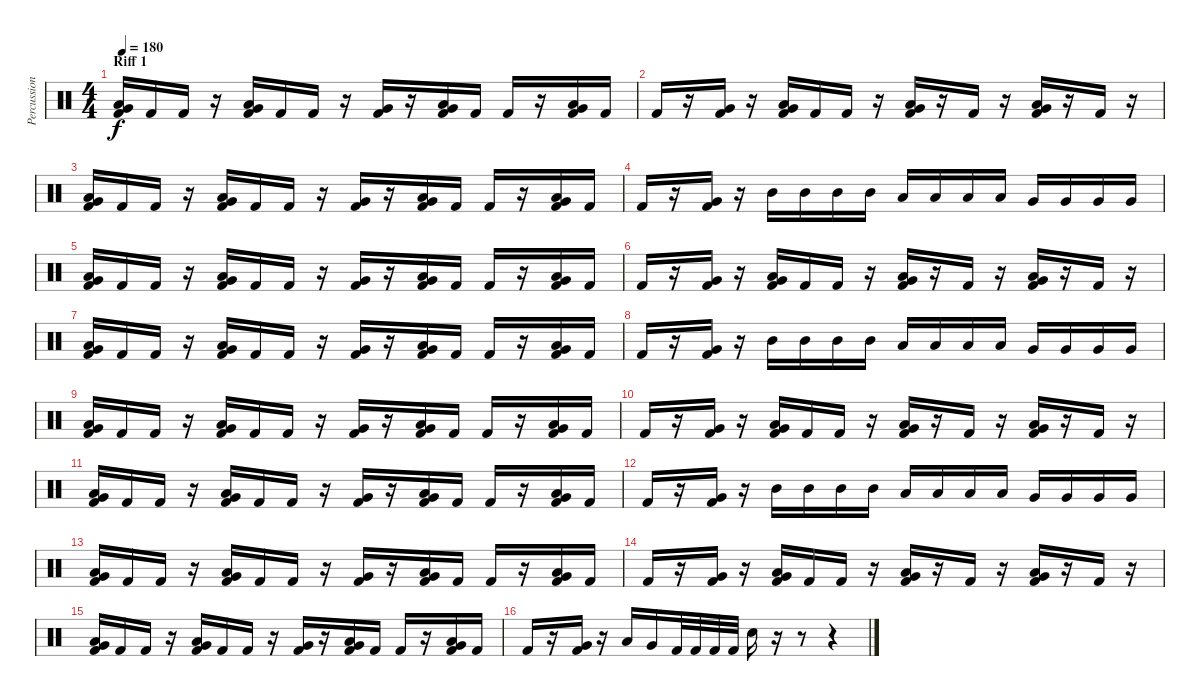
\track ("Percussion" "Percussion") {instrument percussion}
\staff {score}
\articulation defaults
\ts (4 4)
\section ("" "Riff 1")
\tempo 180
\clef neutral
\ks c
("Very Low Tom (hit)" "Low Floor Tom (hit)" "Kick (hit) 2").16{dy f} "Kick (hit) 2".16 "Kick (hit) 2".16 r.16 ("Very Low Tom (hit)" "Low Floor Tom (hit)" "Kick (hit) 2").16 "Kick (hit) 2".16 "Kick (hit) 2".16 r.16 ("Very Low Tom (hit)" "Kick (hit) 2").16 r.16 ("Very Low Tom (hit)" "Low Floor Tom (hit)" "Kick (hit) 2").16 "Kick (hit) 2".16 "Kick (hit) 2".16 r.16 ("Very Low Tom (hit)" "Low Floor Tom (hit)" "Kick (hit) 2").16 "Kick (hit) 2".16 |
"Kick (hit) 2".16 r.16 ("Very Low Tom (hit)" "Kick (hit) 2").16 r.16 ("Very Low Tom (hit)" "Low Floor Tom (hit)" "Kick (hit) 2").16 "Kick (hit) 2".16 "Kick (hit) 2".16 r.16 ("Very Low Tom (hit)" "Low Floor Tom (hit)" "Kick (hit) 2").16 r.16 "Kick (hit) 2".16 r.16 ("Very Low Tom (hit)" "Low Floor Tom (hit)" "Kick (hit) 2").16 r.16 "Kick (hit) 2".16 r.16 |
("Very Low Tom (hit)" "Low Floor Tom (hit)" "Kick (hit) 2").16 "Kick (hit) 2".16 "Kick (hit) 2".16 r.16 ("Very Low Tom (hit)" "Low Floor Tom (hit)" "Kick (hit) 2").16 "Kick (hit) 2".16 "Kick (hit) 2".16 r.16 ("Very Low Tom (hit)" "Kick (hit) 2").16 r.16 ("Very Low Tom (hit)" "Low Floor Tom (hit)" "Kick (hit) 2").16 "Kick (hit) 2".16 "Kick (hit) 2".16 r.16 ("Very Low Tom (hit)" "Low Floor Tom (hit)" "Kick (hit) 2").16 "Kick (hit) 2".16 |
"Kick (hit) 2".16 r.16 ("Very Low Tom (hit)" "Kick (hit) 2").16 r.16 "Mid Tom (hit)".16 "Mid Tom (hit)".16 "Mid Tom (hit)".16 "Mid Tom (hit)".16 "Low Tom (hit)".16 "Low Tom (hit)".16 "Low Tom (hit)".16 "Low Tom (hit)".16 "Very Low Tom (hit)".16 "Very Low Tom (hit)".16 "Very Low Tom (hit)".16 "Very Low Tom (hit)".16 |
("Very Low Tom (hit)" "Low Floor Tom (hit)" "Kick (hit) 2").16 "Kick (hit) 2".16 "Kick (hit) 2".16 r.16 ("Very Low Tom (hit)" "Low Floor Tom (hit)" "Kick (hit) 2").16 "Kick (hit) 2".16 "Kick (hit) 2".16 r.16 ("Very Low Tom (hit)" "Kick (hit) 2").16 r.16 ("Very Low Tom (hit)" "Low Floor Tom (hit)" "Kick (hit) 2").16 "Kick (hit) 2".16 "Kick (hit) 2".16 r.16 ("Very Low Tom (hit)" "Low Floor Tom (hit)" "Kick (hit) 2").16 "Kick (hit) 2".16 |
"Kick (hit) 2".16 r.16 ("Very Low Tom (hit)" "Kick (hit) 2").16 r.16 ("Very Low Tom (hit)" "Low Floor Tom (hit)" "Kick (hit) 2").16 "Kick (hit) 2".16 "Kick (hit) 2".16 r.16 ("Very Low Tom (hit)" "Low Floor Tom (hit)" "Kick (hit) 2").16 r.16 "Kick (hit) 2".16 r.16 ("Very Low Tom (hit)" "Low Floor Tom (hit)" "Kick (hit) 2").16 r.16 "Kick (hit) 2".16 r.16 |
("Very Low Tom (hit)" "Low Floor Tom (hit)" "Kick (hit) 2").16 "Kick (hit) 2".16 "Kick (hit) 2".16 r.16 ("Very Low Tom (hit)" "Low Floor Tom (hit)" "Kick (hit) 2").16 "Kick (hit) 2".16 "Kick (hit) 2".16 r.16 ("Very Low Tom (hit)" "Kick (hit) 2").16 r.16 ("Very Low Tom (hit)" "Low Floor Tom (hit)" "Kick (hit) 2").16 "Kick (hit) 2".16 "Kick (hit) 2".16 r.16 ("Very Low Tom (hit)" "Low Floor Tom (hit)" "Kick (hit) 2").16 "Kick (hit) 2".16 |
"Kick (hit) 2".16 r.16 ("Very Low Tom (hit)" "Kick (hit) 2").16 r.16 "Mid Tom (hit)".16 "Mid Tom (hit)".16 "Mid Tom (hit)".16 "Mid Tom (hit)".16 "Low Tom (hit)".16 "Low Tom (hit)".16 "Low Tom (hit)".16 "Low Tom (hit)".16 "Very Low Tom (hit)".16 "Very Low Tom (hit)".16 "Very Low Tom (hit)".16 "Very Low Tom (hit)".16 |
("Very Low Tom (hit)" "Low Floor Tom (hit)" "Kick (hit) 2").16 "Kick (hit) 2".16 "Kick (hit) 2".16 r.16 ("Very Low Tom (hit)" "Low Floor Tom (hit)" "Kick (hit) 2").16 "Kick (hit) 2".16 "Kick (hit) 2".16 r.16 ("Very Low Tom (hit)" "Kick (hit) 2").16 r.16 ("Very Low Tom (hit)" "Low Floor Tom (hit)" "Kick (hit) 2").16 "Kick (hit) 2".16 "Kick (hit) 2".16 r.16 ("Very Low Tom (hit)" "Low Floor Tom (hit)" "Kick (hit) 2").16 "Kick (hit) 2".16 |
"Kick (hit) 2".16 r.16 ("Very Low Tom (hit)" "Kick (hit) 2").16 r.16 ("Very Low Tom (hit)" "Low Floor Tom (hit)" "Kick (hit) 2").16 "Kick (hit) 2".16 "Kick (hit) 2".16 r.16 ("Very Low Tom (hit)" "Low Floor Tom (hit)" "Kick (hit) 2").16 r.16 "Kick (hit) 2".16 r.16 ("Very Low Tom (hit)" "Low Floor Tom (hit)" "Kick (hit) 2").16 r.16 "Kick (hit) 2".16 r.16 |
("Very Low Tom (hit)" "Low Floor Tom (hit)" "Kick (hit) 2").16 "Kick (hit) 2".16 "Kick (hit) 2".16 r.16 ("Very Low Tom (hit)" "Low Floor Tom (hit)" "Kick (hit) 2").16 "Kick (hit) 2".16 "Kick (hit) 2".16 r.16 ("Very Low Tom (hit)" "Kick (hit) 2").16 r.16 ("Very Low Tom (hit)" "Low Floor Tom (hit)" "Kick (hit) 2").16 "Kick (hit) 2".16 "Kick (hit) 2".16 r.16 ("Very Low Tom (hit)" "Low Floor Tom (hit)" "Kick (hit) 2").16 "Kick (hit) 2".16 |
"Kick (hit) 2".16 r.16 ("Very Low Tom (hit)" "Kick (hit) 2").16 r.16 "Mid Tom (hit)".16 "Mid Tom (hit)".16 "Mid Tom (hit)".16 "Mid Tom (hit)".16 "Low Tom (hit)".16 "Low Tom (hit)".16 "Low Tom (hit)".16 "Low Tom (hit)".16 "Very Low Tom (hit)".16 "Very Low Tom (hit)".16 "Very Low Tom (hit)".16 "Very Low Tom (hit)".16 |
("Very Low Tom (hit)" "Low Floor Tom (hit)" "Kick (hit) 2").16 "Kick (hit) 2".16 "Kick (hit) 2".16 r.16 ("Very Low Tom (hit)" "Low Floor Tom (hit)" "Kick (hit) 2").16 "Kick (hit) 2".16 "Kick (hit) 2".16 r.16 ("Very Low Tom (hit)" "Kick (hit) 2").16 r.16 ("Very Low Tom (hit)" "Low Floor Tom (hit)" "Kick (hit) 2").16 "Kick (hit) 2".16 "Kick (hit) 2".16 r.16 ("Very Low Tom (hit)" "Low Floor Tom (hit)" "Kick (hit) 2").16 "Kick (hit) 2".16 |
"Kick (hit) 2".16 r.16 ("Very Low Tom (hit)" "Kick (hit) 2").16 r.16 ("Very Low Tom (hit)" "Low Floor Tom (hit)" "Kick (hit) 2").16 "Kick (hit) 2".16 "Kick (hit) 2".16 r.16 ("Very Low Tom (hit)" "Low Floor Tom (hit)" "Kick (hit) 2").16 r.16 "Kick (hit) 2".16 r.16 ("Very Low Tom (hit)" "Low Floor Tom (hit)" "Kick (hit) 2").16 r.16 "Kick (hit) 2".16 r.16 |
("Very Low Tom (hit)" "Low Floor Tom (hit)" "Kick (hit) 2").16 "Kick (hit) 2".16 "Kick (hit) 2".16 r.16 ("Very Low Tom (hit)" "Low Floor Tom (hit)" "Kick (hit) 2").16 "Kick (hit) 2".16 "Kick (hit) 2".16 r.16 ("Very Low Tom (hit)" "Kick (hit) 2").16 r.16 ("Very Low Tom (hit)" "Low Floor Tom (hit)" "Kick (hit) 2").16 "Kick (hit) 2".16 "Kick (hit) 2".16 r.16 ("Very Low Tom (hit)" "Low Floor Tom (hit)" "Kick (hit) 2").16 "Kick (hit) 2".16 |
"Kick (hit) 2".16 r.16 ("Very Low Tom (hit)" "Kick (hit) 2").16 r.16 "Low Tom (hit)".16 "Very Low Tom (hit)".16 "Kick (hit) 2".32 "Kick (hit) 2".32 "Kick (hit) 2".32 "Kick (hit) 2".32 "Electric Snare (hit)".16 r.16 r.8 r.4
